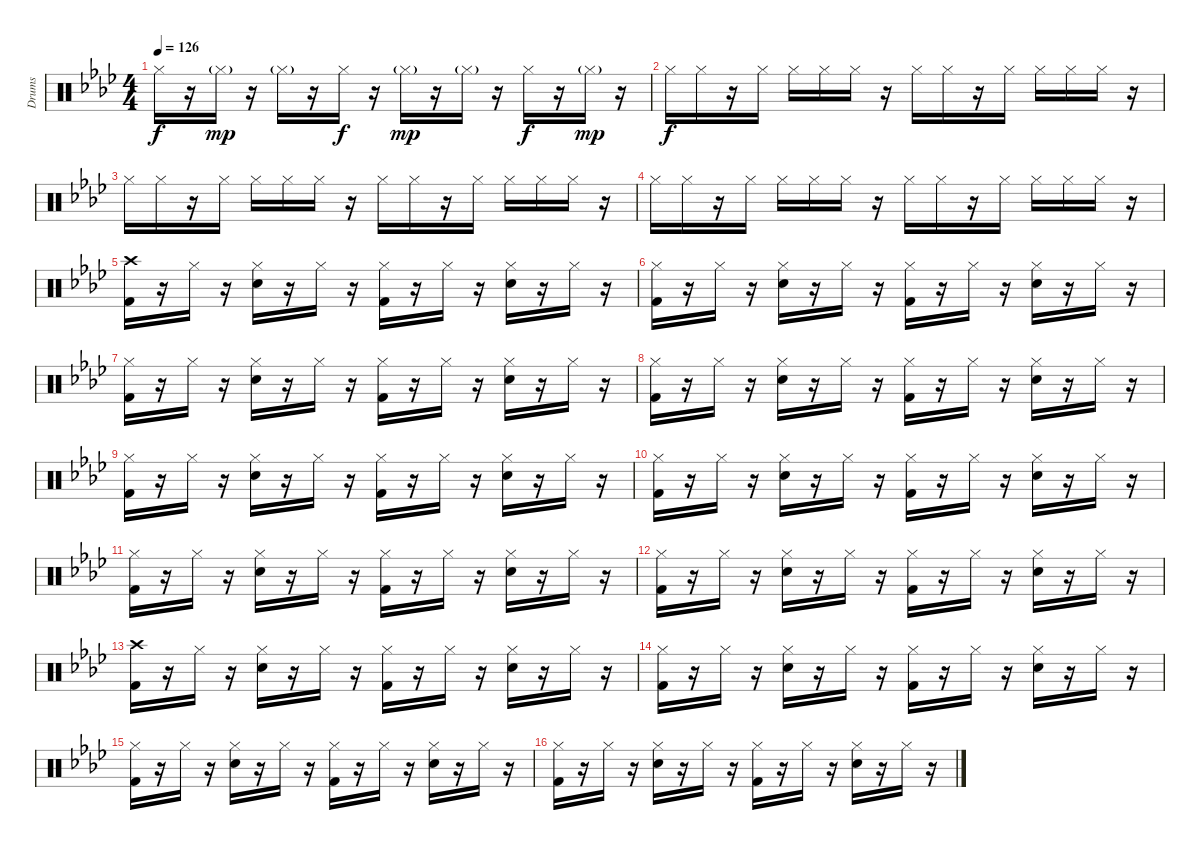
\track ("Drums" "Drums") {instrument percussion}
\staff {score}
\articulation defaults
\ts (4 4)
\tempo 126
\clef neutral
\ks ab "Hi-Hat (closed)".16{dy f}
r.16 "Hi-Hat (closed)"{g}.16{dy mp} r.16 "Hi-Hat (closed)"{g}.16 r.16 "Hi-Hat (closed)".16{dy f} r.16 "Hi-Hat (closed)"{g}.16{dy mp} r.16 "Hi-Hat (closed)"{g}.16 r.16 "Hi-Hat (closed)".16{dy f} r.16 "Hi-Hat (closed)"{g}.16{dy mp} r.16 |
"Hi-Hat (closed)".16{dy f} "Hi-Hat (closed)".16 r.16 "Hi-Hat (closed)".16 "Hi-Hat (closed)".16 "Hi-Hat (closed)".16 "Hi-Hat (closed)".16 r.16 "Hi-Hat (closed)".16 "Hi-Hat (closed)".16 r.16 "Hi-Hat (closed)".16 "Hi-Hat (closed)".16 "Hi-Hat (closed)".16 "Hi-Hat (closed)".16 r.16 |
"Hi-Hat (closed)".16 "Hi-Hat (closed)".16 r.16 "Hi-Hat (closed)".16 "Hi-Hat (closed)".16 "Hi-Hat (closed)".16 "Hi-Hat (closed)".16 r.16 "Hi-Hat (closed)".16 "Hi-Hat (closed)".16 r.16 "Hi-Hat (closed)".16 "Hi-Hat (closed)".16 "Hi-Hat (closed)".16 "Hi-Hat (closed)".16 r.16 |
"Hi-Hat (closed)".16 "Hi-Hat (closed)".16 r.16 "Hi-Hat (closed)".16 "Hi-Hat (closed)".16 "Hi-Hat (closed)".16 "Hi-Hat (closed)".16 r.16 "Hi-Hat (closed)".16 "Hi-Hat (closed)".16 r.16 "Hi-Hat (closed)".16 "Hi-Hat (closed)".16 "Hi-Hat (closed)".16 "Hi-Hat (closed)".16 r.16 |
("Crash high (hit)" "Kick (hit) 2").16 r.16 "Hi-Hat (closed)".16 r.16 ("Hi-Hat (closed)" "Snare (hit) 2").16 r.16 "Hi-Hat (closed)".16 r.16 ("Hi-Hat (closed)" "Kick (hit) 2").16 r.16 "Hi-Hat (closed)".16 r.16 ("Hi-Hat (closed)" "Snare (hit) 2").16 r.16 "Hi-Hat (closed)".16 r.16 |
("Hi-Hat (closed)" "Kick (hit) 2").16 r.16 "Hi-Hat (closed)".16 r.16 ("Hi-Hat (closed)" "Snare (hit) 2").16 r.16 "Hi-Hat (closed)".16 r.16 ("Hi-Hat (closed)" "Kick (hit) 2").16 r.16 "Hi-Hat (closed)".16 r.16 ("Hi-Hat (closed)" "Snare (hit) 2").16 r.16 "Hi-Hat (closed)".16 r.16 |
("Hi-Hat (closed)" "Kick (hit) 2").16 r.16 "Hi-Hat (closed)".16 r.16 ("Hi-Hat (closed)" "Snare (hit) 2").16 r.16 "Hi-Hat (closed)".16 r.16 ("Hi-Hat (closed)" "Kick (hit) 2").16 r.16 "Hi-Hat (closed)".16 r.16 ("Hi-Hat (closed)" "Snare (hit) 2").16 r.16 "Hi-Hat (closed)".16 r.16 |
("Hi-Hat (closed)" "Kick (hit) 2").16 r.16 "Hi-Hat (closed)".16 r.16 ("Hi-Hat (closed)" "Snare (hit) 2").16 r.16 "Hi-Hat (closed)".16 r.16 ("Hi-Hat (closed)" "Kick (hit) 2").16 r.16 "Hi-Hat (closed)".16 r.16 ("Hi-Hat (closed)" "Snare (hit) 2").16 r.16 "Hi-Hat (closed)".16 r.16 |
("Hi-Hat (closed)" "Kick (hit) 2").16 r.16 "Hi-Hat (closed)".16 r.16 ("Hi-Hat (closed)" "Snare (hit) 2").16 r.16 "Hi-Hat (closed)".16 r.16 ("Hi-Hat (closed)" "Kick (hit) 2").16 r.16 "Hi-Hat (closed)".16 r.16 ("Hi-Hat (closed)" "Snare (hit) 2").16 r.16 "Hi-Hat (closed)".16 r.16 |
("Hi-Hat (closed)" "Kick (hit) 2").16 r.16 "Hi-Hat (closed)".16 r.16 ("Hi-Hat (closed)" "Snare (hit) 2").16 r.16 "Hi-Hat (closed)".16 r.16 ("Hi-Hat (closed)" "Kick (hit) 2").16 r.16 "Hi-Hat (closed)".16 r.16 ("Hi-Hat (closed)" "Snare (hit) 2").16 r.16 "Hi-Hat (closed)".16 r.16 |
("Hi-Hat (closed)" "Kick (hit) 2").16 r.16 "Hi-Hat (closed)".16 r.16 ("Hi-Hat (closed)" "Snare (hit) 2").16 r.16 "Hi-Hat (closed)".16 r.16 ("Hi-Hat (closed)" "Kick (hit) 2").16 r.16 "Hi-Hat (closed)".16 r.16 ("Hi-Hat (closed)" "Snare (hit) 2").16 r.16 "Hi-Hat (closed)".16 r.16 |
("Hi-Hat (closed)" "Kick (hit) 2").16 r.16 "Hi-Hat (closed)".16 r.16 ("Hi-Hat (closed)" "Snare (hit) 2").16 r.16 "Hi-Hat (closed)".16 r.16 ("Hi-Hat (closed)" "Kick (hit) 2").16 r.16 "Hi-Hat (closed)".16 r.16 ("Hi-Hat (closed)" "Snare (hit) 2").16 r.16 "Hi-Hat (closed)".16 r.16 |
("Crash high (hit)" "Kick (hit) 2").16 r.16 "Hi-Hat (closed)".16 r.16 ("Hi-Hat (closed)" "Snare (hit) 2").16 r.16 "Hi-Hat (closed)".16 r.16 ("Hi-Hat (closed)" "Kick (hit) 2").16 r.16 "Hi-Hat (closed)".16 r.16 ("Hi-Hat (closed)" "Snare (hit) 2").16 r.16 "Hi-Hat (closed)".16 r.16 |
("Hi-Hat (closed)" "Kick (hit) 2").16 r.16 "Hi-Hat (closed)".16 r.16 ("Hi-Hat (closed)" "Snare (hit) 2").16 r.16 "Hi-Hat (closed)".16 r.16 ("Hi-Hat (closed)" "Kick (hit) 2").16 r.16 "Hi-Hat (closed)".16 r.16 ("Hi-Hat (closed)" "Snare (hit) 2").16 r.16 "Hi-Hat (closed)".16 r.16 |
("Hi-Hat (closed)" "Kick (hit) 2").16 r.16 "Hi-Hat (closed)".16 r.16 ("Hi-Hat (closed)" "Snare (hit) 2").16 r.16 "Hi-Hat (closed)".16 r.16 ("Hi-Hat (closed)" "Kick (hit) 2").16 r.16 "Hi-Hat (closed)".16 r.16 ("Hi-Hat (closed)" "Snare (hit) 2").16 r.16 "Hi-Hat (closed)".16 r.16 |
("Hi-Hat (closed)" "Kick (hit) 2").16 r.16 "Hi-Hat (closed)".16 r.16 ("Hi-Hat (closed)" "Snare (hit) 2").16 r.16 "Hi-Hat (closed)".16 r.16 ("Hi-Hat (closed)" "Kick (hit) 2").16 r.16 "Hi-Hat (closed)".16 r.16 ("Hi-Hat (closed)" "Snare (hit) 2").16 r.16 "Hi-Hat (closed)".16 r.16
